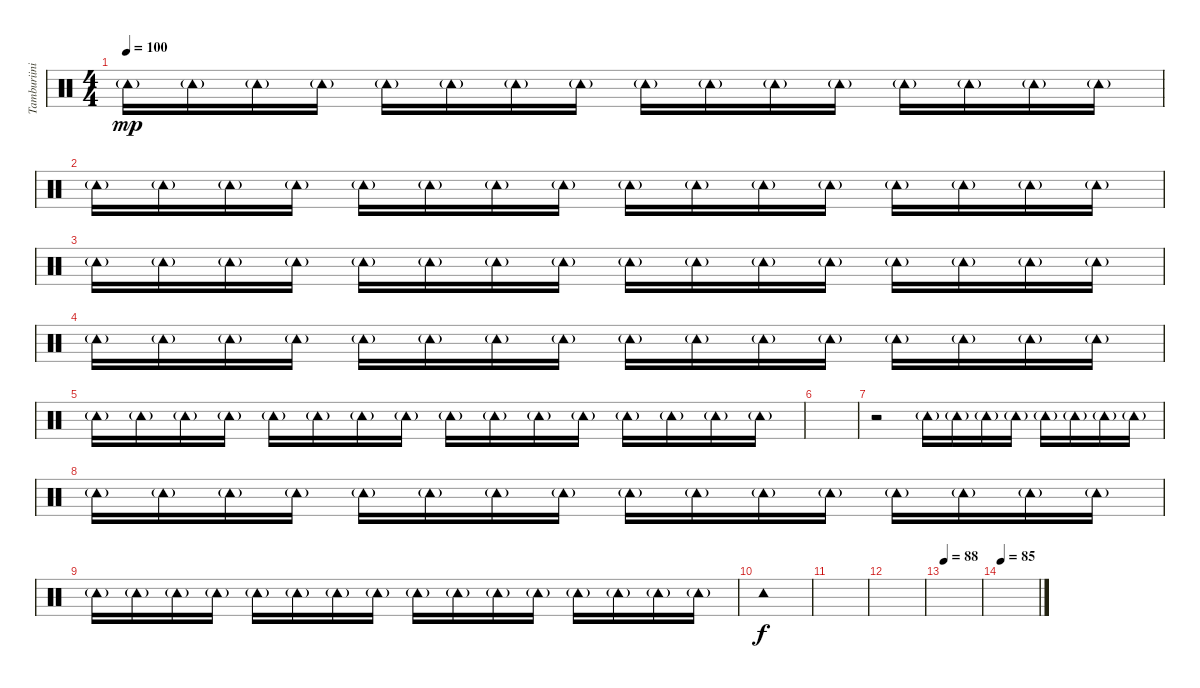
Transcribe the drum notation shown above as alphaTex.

\track ("Tamburiini" "Tamburiini") {instrument percussion}
\staff {score}
\articulation defaults
\ts (4 4)
\tempo 100
\clef neutral
\ks c "Tambourine (hit)"{g}.16{dy mp} "Tambourine (hit)"{g}.16 "Tambourine (hit)"{g}.16 "Tambourine (hit)"{g}.16 "Tambourine (hit)"{g}.16 "Tambourine (hit)"{g}.16 "Tambourine (hit)"{g}.16 "Tambourine (hit)"{g}.16 "Tambourine (hit)"{g}.16 "Tambourine (hit)"{g}.16 "Tambourine (hit)"{g}.16 "Tambourine (hit)"{g}.16 "Tambourine (hit)"{g}.16 "Tambourine (hit)"{g}.16 "Tambourine (hit)"{g}.16 "Tambourine (hit)"{g}.16
|
"Tambourine (hit)"{g}.16 "Tambourine (hit)"{g}.16 "Tambourine (hit)"{g}.16 "Tambourine (hit)"{g}.16 "Tambourine (hit)"{g}.16 "Tambourine (hit)"{g}.16 "Tambourine (hit)"{g}.16 "Tambourine (hit)"{g}.16 "Tambourine (hit)"{g}.16 "Tambourine (hit)"{g}.16 "Tambourine (hit)"{g}.16 "Tambourine (hit)"{g}.16 "Tambourine (hit)"{g}.16 "Tambourine (hit)"{g}.16 "Tambourine (hit)"{g}.16 "Tambourine (hit)"{g}.16 |
"Tambourine (hit)"{g}.16 "Tambourine (hit)"{g}.16 "Tambourine (hit)"{g}.16 "Tambourine (hit)"{g}.16 "Tambourine (hit)"{g}.16 "Tambourine (hit)"{g}.16 "Tambourine (hit)"{g}.16 "Tambourine (hit)"{g}.16 "Tambourine (hit)"{g}.16 "Tambourine (hit)"{g}.16 "Tambourine (hit)"{g}.16 "Tambourine (hit)"{g}.16 "Tambourine (hit)"{g}.16 "Tambourine (hit)"{g}.16 "Tambourine (hit)"{g}.16 "Tambourine (hit)"{g}.16 |
"Tambourine (hit)"{g}.16 "Tambourine (hit)"{g}.16 "Tambourine (hit)"{g}.16 "Tambourine (hit)"{g}.16 "Tambourine (hit)"{g}.16 "Tambourine (hit)"{g}.16 "Tambourine (hit)"{g}.16 "Tambourine (hit)"{g}.16 "Tambourine (hit)"{g}.16 "Tambourine (hit)"{g}.16 "Tambourine (hit)"{g}.16 "Tambourine (hit)"{g}.16 "Tambourine (hit)"{g}.16 "Tambourine (hit)"{g}.16 "Tambourine (hit)"{g}.16 "Tambourine (hit)"{g}.16 |
"Tambourine (hit)"{g}.16 "Tambourine (hit)"{g}.16 "Tambourine (hit)"{g}.16 "Tambourine (hit)"{g}.16 "Tambourine (hit)"{g}.16 "Tambourine (hit)"{g}.16 "Tambourine (hit)"{g}.16 "Tambourine (hit)"{g}.16 "Tambourine (hit)"{g}.16 "Tambourine (hit)"{g}.16 "Tambourine (hit)"{g}.16 "Tambourine (hit)"{g}.16 "Tambourine (hit)"{g}.16 "Tambourine (hit)"{g}.16 "Tambourine (hit)"{g}.16 "Tambourine (hit)"{g}.16 |
|
r.2 "Tambourine (hit)"{g}.16 "Tambourine (hit)"{g}.16 "Tambourine (hit)"{g}.16 "Tambourine (hit)"{g}.16 "Tambourine (hit)"{g}.16 "Tambourine (hit)"{g}.16 "Tambourine (hit)"{g}.16 "Tambourine (hit)"{g}.16 |
"Tambourine (hit)"{g}.16 "Tambourine (hit)"{g}.16 "Tambourine (hit)"{g}.16 "Tambourine (hit)"{g}.16 "Tambourine (hit)"{g}.16 "Tambourine (hit)"{g}.16 "Tambourine (hit)"{g}.16 "Tambourine (hit)"{g}.16 "Tambourine (hit)"{g}.16 "Tambourine (hit)"{g}.16 "Tambourine (hit)"{g}.16 "Tambourine (hit)"{g}.16 "Tambourine (hit)"{g}.16 "Tambourine (hit)"{g}.16 "Tambourine (hit)"{g}.16 "Tambourine (hit)"{g}.16 |
"Tambourine (hit)"{g}.16 "Tambourine (hit)"{g}.16 "Tambourine (hit)"{g}.16 "Tambourine (hit)"{g}.16 "Tambourine (hit)"{g}.16 "Tambourine (hit)"{g}.16 "Tambourine (hit)"{g}.16 "Tambourine (hit)"{g}.16 "Tambourine (hit)"{g}.16 "Tambourine (hit)"{g}.16 "Tambourine (hit)"{g}.16 "Tambourine (hit)"{g}.16 "Tambourine (hit)"{g}.16 "Tambourine (hit)"{g}.16 "Tambourine (hit)"{g}.16 "Tambourine (hit)"{g}.16 |
"Tambourine (hit)".1{dy f} |
|
|
\tempo 88
|
\tempo 85
